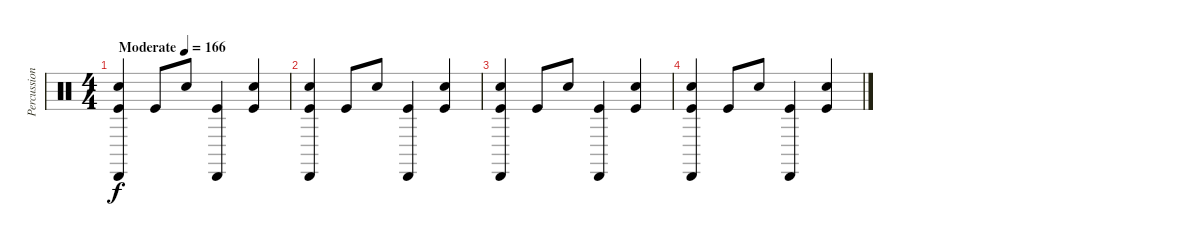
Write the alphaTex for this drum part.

\track ("Percussion" "Percussion") {instrument percussion}
\staff {score}
\articulation defaults
\ts (4 4)
\tempo (166 "Moderate")
\clef neutral
\ks c
("Hand Clap (hit)" "Cabasa (hit)" "Kick (hit)").4{dy f} "Kick (hit)".8 "Hand Clap (hit)".8 ("Cabasa (hit)" "Kick (hit)").4 ("Hand Clap (hit)" "Kick (hit)").4 |
("Hand Clap (hit)" "Cabasa (hit)" "Kick (hit)").4 "Kick (hit)".8 "Hand Clap (hit)".8 ("Cabasa (hit)" "Kick (hit)").4 ("Hand Clap (hit)" "Kick (hit)").4 |
("Hand Clap (hit)" "Cabasa (hit)" "Kick (hit)").4 "Kick (hit)".8 "Hand Clap (hit)".8 ("Cabasa (hit)" "Kick (hit)").4 ("Hand Clap (hit)" "Kick (hit)").4 |
("Hand Clap (hit)" "Cabasa (hit)" "Kick (hit)").4 "Kick (hit)".8 "Hand Clap (hit)".8 ("Cabasa (hit)" "Kick (hit)").4 ("Hand Clap (hit)" "Kick (hit)").4
